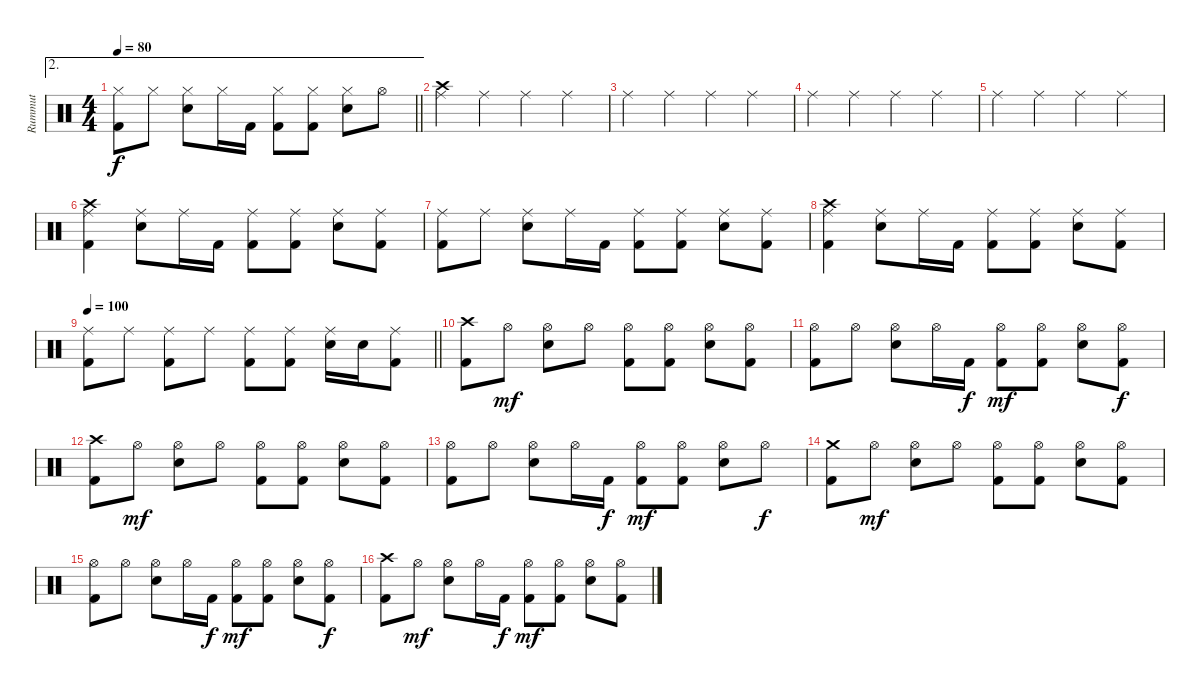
\track ("Rummut" "Rummut") {instrument percussion}
\staff {score}
\articulation defaults
\ae 2
\ts (4 4)
\tempo 80
\clef neutral
\barLineRight lightlight
\ks c
("Hi-Hat (closed)" "Kick (hit) 2").8{dy f} "Hi-Hat (closed)".8 ("Hi-Hat (closed)" "Snare (hit) 2").8 "Hi-Hat (closed)".16 "Kick (hit) 2".16 ("Hi-Hat (closed)" "Kick (hit) 2").8 ("Hi-Hat (closed)" "Kick (hit) 2").8 ("Hi-Hat (closed)" "Snare (hit) 2").8 "Hi-Hat (open)".8 |
("Crash high (hit)" "Ride (middle)").4 "Ride (middle)".4 "Ride (middle)".4 "Ride (middle)".4 |
"Ride (middle)".4 "Ride (middle)".4 "Ride (middle)".4 "Ride (middle)".4 |
"Ride (middle)".4 "Ride (middle)".4 "Ride (middle)".4 "Ride (middle)".4 |
"Ride (middle)".4 "Ride (middle)".4 "Ride (middle)".4 "Ride (middle)".4 |
("Crash high (hit)" "Ride (middle)" "Kick (hit) 2").4 ("Ride (middle)" "Snare (hit) 2").8 "Ride (middle)".16 "Kick (hit) 2".16 ("Ride (middle)" "Kick (hit) 2").8 ("Ride (middle)" "Kick (hit) 2").8 ("Ride (middle)" "Snare (hit) 2").8 ("Ride (middle)" "Kick (hit) 2").8 |
("Ride (middle)" "Kick (hit) 2").8 "Ride (middle)".8 ("Ride (middle)" "Snare (hit) 2").8 "Ride (middle)".16 "Kick (hit) 2".16 ("Ride (middle)" "Kick (hit) 2").8 ("Ride (middle)" "Kick (hit) 2").8 ("Ride (middle)" "Snare (hit) 2").8 ("Ride (middle)" "Kick (hit) 2").8 |
("Crash high (hit)" "Ride (middle)" "Kick (hit) 2").4 ("Ride (middle)" "Snare (hit) 2").8 "Ride (middle)".16 "Kick (hit) 2".16 ("Ride (middle)" "Kick (hit) 2").8 ("Ride (middle)" "Kick (hit) 2").8 ("Ride (middle)" "Snare (hit) 2").8 ("Ride (middle)" "Kick (hit) 2").8 |
\tempo 100
\barLineRight lightlight
("Ride (middle)" "Kick (hit) 2").8 "Ride (middle)".8 ("Ride (middle)" "Kick (hit) 2").8 "Ride (middle)".8 ("Ride (middle)" "Kick (hit) 2").8 ("Ride (middle)" "Kick (hit) 2").8 ("Ride (middle)" "Snare (hit) 2").16 "Snare (hit) 2".16 ("Ride (middle)" "Kick (hit) 2").8 |
("Crash high (hit)" "Kick (hit) 2").8 "Hi-Hat (open)".8{dy mf} ("Hi-Hat (open)" "Snare (hit) 2").8 "Hi-Hat (open)".8 ("Hi-Hat (open)" "Kick (hit) 2").8 ("Hi-Hat (open)" "Kick (hit) 2").8 ("Hi-Hat (open)" "Snare (hit) 2").8 ("Hi-Hat (open)" "Kick (hit) 2").8 |
("Hi-Hat (open)" "Kick (hit) 2").8 "Hi-Hat (open)".8 ("Hi-Hat (open)" "Snare (hit) 2").8 "Hi-Hat (open)".16 "Kick (hit) 2".16{dy f} ("Hi-Hat (open)" "Kick (hit) 2").8{dy mf} ("Hi-Hat (open)" "Kick (hit) 2").8 ("Hi-Hat (open)" "Snare (hit) 2").8 ("Hi-Hat (open)" "Kick (hit) 2").8{dy f} |
("Crash high (hit)" "Kick (hit) 2").8 "Hi-Hat (open)".8{dy mf} ("Hi-Hat (open)" "Snare (hit) 2").8 "Hi-Hat (open)".8 ("Hi-Hat (open)" "Kick (hit) 2").8 ("Hi-Hat (open)" "Kick (hit) 2").8 ("Hi-Hat (open)" "Snare (hit) 2").8 ("Hi-Hat (open)" "Kick (hit) 2").8 |
("Hi-Hat (open)" "Kick (hit) 2").8 "Hi-Hat (open)".8 ("Hi-Hat (open)" "Snare (hit) 2").8 "Hi-Hat (open)".16 "Kick (hit) 2".16{dy f} ("Hi-Hat (open)" "Kick (hit) 2").8{dy mf} ("Hi-Hat (open)" "Kick (hit) 2").8 ("Hi-Hat (open)" "Snare (hit) 2").8 "Hi-Hat (open)".8{dy f} |
("Crash medium (hit)" "Kick (hit) 2").8 "Hi-Hat (open)".8{dy mf} ("Hi-Hat (open)" "Snare (hit) 2").8 "Hi-Hat (open)".8 ("Hi-Hat (open)" "Kick (hit) 2").8 ("Hi-Hat (open)" "Kick (hit) 2").8 ("Hi-Hat (open)" "Snare (hit) 2").8 ("Hi-Hat (open)" "Kick (hit) 2").8 |
("Hi-Hat (open)" "Kick (hit) 2").8 "Hi-Hat (open)".8 ("Hi-Hat (open)" "Snare (hit) 2").8 "Hi-Hat (open)".16 "Kick (hit) 2".16{dy f} ("Hi-Hat (open)" "Kick (hit) 2").8{dy mf} ("Hi-Hat (open)" "Kick (hit) 2").8 ("Hi-Hat (open)" "Snare (hit) 2").8 ("Hi-Hat (open)" "Kick (hit) 2").8{dy f} |
("Crash high (hit)" "Kick (hit) 2").8 "Hi-Hat (open)".8{dy mf} ("Hi-Hat (open)" "Snare (hit) 2").8 "Hi-Hat (open)".16 "Kick (hit) 2".16{dy f} ("Hi-Hat (open)" "Kick (hit) 2").8{dy mf} ("Hi-Hat (open)" "Kick (hit) 2").8 ("Hi-Hat (open)" "Snare (hit) 2").8 ("Hi-Hat (open)" "Kick (hit) 2").8
